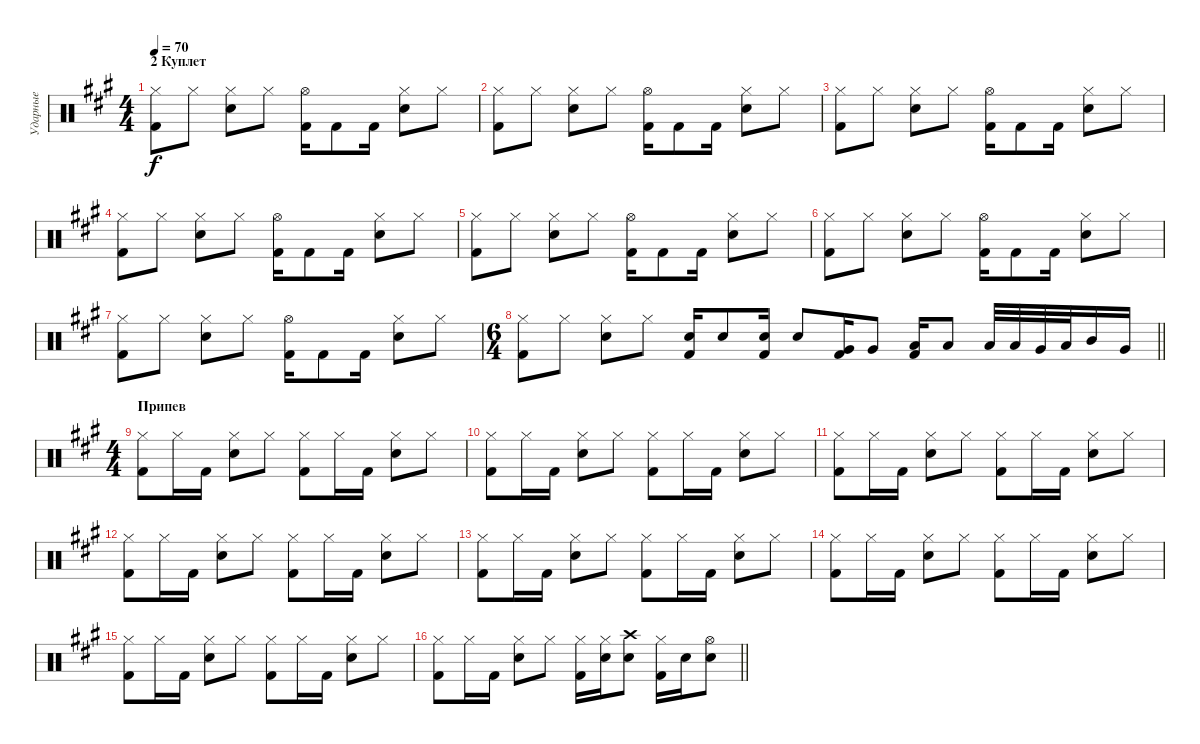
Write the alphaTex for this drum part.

\track ("Ударные" "Ударные") {instrument percussion}
\staff {score}
\articulation defaults
\ts (4 4)
\section ("" "2 Куплет")
\tempo 70
\clef neutral
\ks a
("Hi-Hat (closed)" "Kick (hit) 2").8{dy f} "Hi-Hat (closed)".8 ("Hi-Hat (closed)" "Snare (hit) 2").8 "Hi-Hat (closed)".8 ("Hi-Hat (open)" "Kick (hit) 2").16 "Kick (hit) 2".8 "Kick (hit) 2".16 ("Hi-Hat (closed)" "Snare (hit) 2").8 "Hi-Hat (closed)".8 |
("Hi-Hat (closed)" "Kick (hit) 2").8 "Hi-Hat (closed)".8 ("Hi-Hat (closed)" "Snare (hit) 2").8 "Hi-Hat (closed)".8 ("Hi-Hat (open)" "Kick (hit) 2").16 "Kick (hit) 2".8 "Kick (hit) 2".16 ("Hi-Hat (closed)" "Snare (hit) 2").8 "Hi-Hat (closed)".8 |
("Hi-Hat (closed)" "Kick (hit) 2").8 "Hi-Hat (closed)".8 ("Hi-Hat (closed)" "Snare (hit) 2").8 "Hi-Hat (closed)".8 ("Hi-Hat (open)" "Kick (hit) 2").16 "Kick (hit) 2".8 "Kick (hit) 2".16 ("Hi-Hat (closed)" "Snare (hit) 2").8 "Hi-Hat (closed)".8 |
("Hi-Hat (closed)" "Kick (hit) 2").8 "Hi-Hat (closed)".8 ("Hi-Hat (closed)" "Snare (hit) 2").8 "Hi-Hat (closed)".8 ("Hi-Hat (open)" "Kick (hit) 2").16 "Kick (hit) 2".8 "Kick (hit) 2".16 ("Hi-Hat (closed)" "Snare (hit) 2").8 "Hi-Hat (closed)".8 |
("Hi-Hat (closed)" "Kick (hit) 2").8 "Hi-Hat (closed)".8 ("Hi-Hat (closed)" "Snare (hit) 2").8 "Hi-Hat (closed)".8 ("Hi-Hat (open)" "Kick (hit) 2").16 "Kick (hit) 2".8 "Kick (hit) 2".16 ("Hi-Hat (closed)" "Snare (hit) 2").8 "Hi-Hat (closed)".8 |
("Hi-Hat (closed)" "Kick (hit) 2").8 "Hi-Hat (closed)".8 ("Hi-Hat (closed)" "Snare (hit) 2").8 "Hi-Hat (closed)".8 ("Hi-Hat (open)" "Kick (hit) 2").16 "Kick (hit) 2".8 "Kick (hit) 2".16 ("Hi-Hat (closed)" "Snare (hit) 2").8 "Hi-Hat (closed)".8 |
("Hi-Hat (closed)" "Kick (hit) 2").8 "Hi-Hat (closed)".8 ("Hi-Hat (closed)" "Snare (hit) 2").8 "Hi-Hat (closed)".8 ("Hi-Hat (open)" "Kick (hit) 2").16 "Kick (hit) 2".8 "Kick (hit) 2".16 ("Hi-Hat (closed)" "Snare (hit) 2").8 "Hi-Hat (closed)".8 |
\ts (6 4)
\barLineRight lightlight
("Hi-Hat (closed)" "Kick (hit) 2").8 "Hi-Hat (closed)".8 ("Hi-Hat (closed)" "Snare (hit) 2").8 "Hi-Hat (closed)".8 ("Snare (hit) 2" "Kick (hit) 2").16 "Snare (hit) 2".8 ("Snare (hit) 2" "Kick (hit) 2").16 "Snare (hit) 2".8 ("Very Low Tom (hit)" "Kick (hit) 2").16 "Very Low Tom (hit)".8 ("Low Floor Tom (hit)" "Kick (hit) 2").16 "Low Floor Tom (hit)".8 "Low Floor Tom (hit)".32{volume 7} "Low Floor Tom (hit)".32 "Very Low Tom (hit)".32 "Low Floor Tom (hit)".32 "Mid Tom (hit)".16{volume 13} "Very Low Tom (hit)".16 |
\ts (4 4)
\section ("" "Припев")
("Hi-Hat (closed)" "Kick (hit) 2").8 "Hi-Hat (closed)".16 "Kick (hit) 2".16 ("Hi-Hat (closed)" "Snare (hit) 2").8 "Hi-Hat (closed)".8 ("Hi-Hat (closed)" "Kick (hit) 2").8 "Hi-Hat (closed)".16 "Kick (hit) 2".16 ("Hi-Hat (closed)" "Snare (hit) 2").8 "Hi-Hat (closed)".8 |
("Hi-Hat (closed)" "Kick (hit) 2").8 "Hi-Hat (closed)".16 "Kick (hit) 2".16 ("Hi-Hat (closed)" "Snare (hit) 2").8 "Hi-Hat (closed)".8 ("Hi-Hat (closed)" "Kick (hit) 2").8 "Hi-Hat (closed)".16 "Kick (hit) 2".16 ("Hi-Hat (closed)" "Snare (hit) 2").8 "Hi-Hat (closed)".8 |
("Hi-Hat (closed)" "Kick (hit) 2").8 "Hi-Hat (closed)".16 "Kick (hit) 2".16 ("Hi-Hat (closed)" "Snare (hit) 2").8 "Hi-Hat (closed)".8 ("Hi-Hat (closed)" "Kick (hit) 2").8 "Hi-Hat (closed)".16 "Kick (hit) 2".16 ("Hi-Hat (closed)" "Snare (hit) 2").8 "Hi-Hat (closed)".8 |
("Hi-Hat (closed)" "Kick (hit) 2").8 "Hi-Hat (closed)".16 "Kick (hit) 2".16 ("Hi-Hat (closed)" "Snare (hit) 2").8 "Hi-Hat (closed)".8 ("Hi-Hat (closed)" "Kick (hit) 2").8 "Hi-Hat (closed)".16 "Kick (hit) 2".16 ("Hi-Hat (closed)" "Snare (hit) 2").8 "Hi-Hat (closed)".8 |
("Hi-Hat (closed)" "Kick (hit) 2").8 "Hi-Hat (closed)".16 "Kick (hit) 2".16 ("Hi-Hat (closed)" "Snare (hit) 2").8 "Hi-Hat (closed)".8 ("Hi-Hat (closed)" "Kick (hit) 2").8 "Hi-Hat (closed)".16 "Kick (hit) 2".16 ("Hi-Hat (closed)" "Snare (hit) 2").8 "Hi-Hat (closed)".8 |
("Hi-Hat (closed)" "Kick (hit) 2").8 "Hi-Hat (closed)".16 "Kick (hit) 2".16 ("Hi-Hat (closed)" "Snare (hit) 2").8 "Hi-Hat (closed)".8 ("Hi-Hat (closed)" "Kick (hit) 2").8 "Hi-Hat (closed)".16 "Kick (hit) 2".16 ("Hi-Hat (closed)" "Snare (hit) 2").8 "Hi-Hat (closed)".8 |
("Hi-Hat (closed)" "Kick (hit) 2").8 "Hi-Hat (closed)".16 "Kick (hit) 2".16 ("Hi-Hat (closed)" "Snare (hit) 2").8 "Hi-Hat (closed)".8 ("Hi-Hat (closed)" "Kick (hit) 2").8 "Hi-Hat (closed)".16 "Kick (hit) 2".16 ("Hi-Hat (closed)" "Snare (hit) 2").8 "Hi-Hat (closed)".8 |
\barLineRight lightlight
("Hi-Hat (closed)" "Kick (hit) 2").8 "Hi-Hat (closed)".16 "Kick (hit) 2".16 ("Hi-Hat (closed)" "Snare (hit) 2").8 "Hi-Hat (closed)".8 ("Hi-Hat (closed)" "Kick (hit) 2").16 ("Hi-Hat (closed)" "Snare (hit) 2").16 ("Crash high (hit)" "Snare (hit) 2").8 ("Hi-Hat (closed)" "Kick (hit) 2").16 "Snare (hit) 2".16 ("Hi-Hat (open)" "Snare (hit) 2").8
